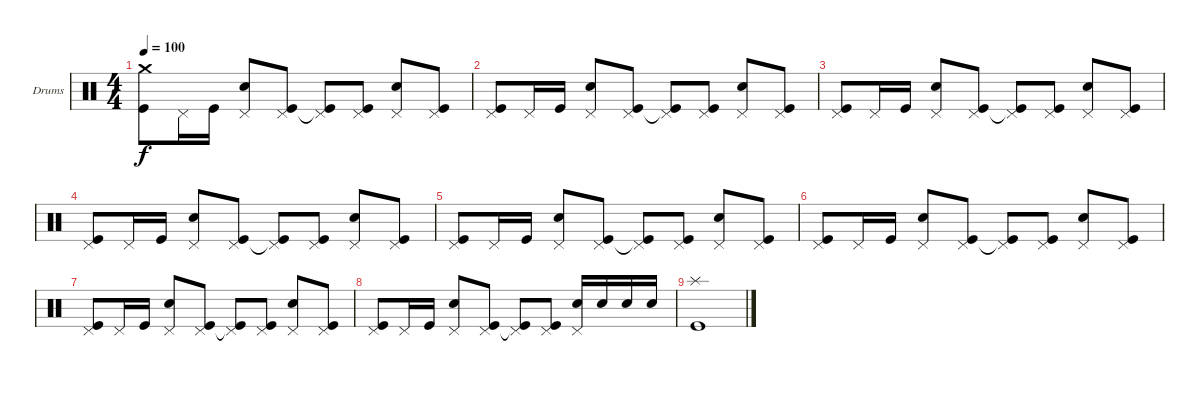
\defaultSystemsLayout 4
\bracketExtendMode groupsimilarinstruments
\firstSystemTrackNameOrientation horizontal
\otherSystemsTrackNameOrientation horizontal
\track ("Drumkit" "Drums") {instrument percussion}
\staff {score}
\articulation defaults
\ts (4 4)
\tempo 100
\clef neutral
\ks c
("Crash medium (hit)" "Kick (hit)").8{dy f} "Pedal Hi-Hat (hit)".16 "Kick (hit)".16 ("Pedal Hi-Hat (hit)" "Snare (hit) 2").8 ("Pedal Hi-Hat (hit)" "Kick (hit)").8 ("Pedal Hi-Hat (hit)" "Kick (hit)"{t}).8 ("Pedal Hi-Hat (hit)" "Kick (hit)").8 ("Pedal Hi-Hat (hit)" "Snare (hit) 2").8 ("Pedal Hi-Hat (hit)" "Kick (hit)").8 |
("Pedal Hi-Hat (hit)" "Kick (hit)").8 "Pedal Hi-Hat (hit)".16 "Kick (hit)".16 ("Pedal Hi-Hat (hit)" "Snare (hit) 2").8 ("Pedal Hi-Hat (hit)" "Kick (hit)").8 ("Pedal Hi-Hat (hit)" "Kick (hit)"{t}).8 ("Pedal Hi-Hat (hit)" "Kick (hit)").8 ("Pedal Hi-Hat (hit)" "Snare (hit) 2").8 ("Pedal Hi-Hat (hit)" "Kick (hit)").8 |
("Pedal Hi-Hat (hit)" "Kick (hit)").8 "Pedal Hi-Hat (hit)".16 "Kick (hit)".16 ("Pedal Hi-Hat (hit)" "Snare (hit) 2").8 ("Pedal Hi-Hat (hit)" "Kick (hit)").8 ("Pedal Hi-Hat (hit)" "Kick (hit)"{t}).8 ("Pedal Hi-Hat (hit)" "Kick (hit)").8 ("Pedal Hi-Hat (hit)" "Snare (hit) 2").8 ("Pedal Hi-Hat (hit)" "Kick (hit)").8 |
("Pedal Hi-Hat (hit)" "Kick (hit)").8 "Pedal Hi-Hat (hit)".16 "Kick (hit)".16 ("Pedal Hi-Hat (hit)" "Snare (hit) 2").8 ("Pedal Hi-Hat (hit)" "Kick (hit)").8 ("Pedal Hi-Hat (hit)" "Kick (hit)"{t}).8 ("Pedal Hi-Hat (hit)" "Kick (hit)").8 ("Pedal Hi-Hat (hit)" "Snare (hit) 2").8 ("Pedal Hi-Hat (hit)" "Kick (hit)").8 |
("Pedal Hi-Hat (hit)" "Kick (hit)").8 "Pedal Hi-Hat (hit)".16 "Kick (hit)".16 ("Pedal Hi-Hat (hit)" "Snare (hit) 2").8 ("Pedal Hi-Hat (hit)" "Kick (hit)").8 ("Pedal Hi-Hat (hit)" "Kick (hit)"{t}).8 ("Pedal Hi-Hat (hit)" "Kick (hit)").8 ("Pedal Hi-Hat (hit)" "Snare (hit) 2").8 ("Pedal Hi-Hat (hit)" "Kick (hit)").8 |
("Pedal Hi-Hat (hit)" "Kick (hit)").8 "Pedal Hi-Hat (hit)".16 "Kick (hit)".16 ("Pedal Hi-Hat (hit)" "Snare (hit) 2").8 ("Pedal Hi-Hat (hit)" "Kick (hit)").8 ("Pedal Hi-Hat (hit)" "Kick (hit)"{t}).8 ("Pedal Hi-Hat (hit)" "Kick (hit)").8 ("Pedal Hi-Hat (hit)" "Snare (hit) 2").8 ("Pedal Hi-Hat (hit)" "Kick (hit)").8 |
("Pedal Hi-Hat (hit)" "Kick (hit)").8 "Pedal Hi-Hat (hit)".16 "Kick (hit)".16 ("Pedal Hi-Hat (hit)" "Snare (hit) 2").8 ("Pedal Hi-Hat (hit)" "Kick (hit)").8 ("Pedal Hi-Hat (hit)" "Kick (hit)"{t}).8 ("Pedal Hi-Hat (hit)" "Kick (hit)").8 ("Pedal Hi-Hat (hit)" "Snare (hit) 2").8 ("Pedal Hi-Hat (hit)" "Kick (hit)").8 |
("Pedal Hi-Hat (hit)" "Kick (hit)").8 "Pedal Hi-Hat (hit)".16 "Kick (hit)".16 ("Pedal Hi-Hat (hit)" "Snare (hit) 2").8 ("Pedal Hi-Hat (hit)" "Kick (hit)").8 ("Pedal Hi-Hat (hit)" "Kick (hit)"{t}).8 ("Pedal Hi-Hat (hit)" "Kick (hit)").8 ("Pedal Hi-Hat (hit)" "Snare (hit) 2").16 "Snare (hit) 2".16 "Snare (hit) 2".16 "Snare (hit) 2".16 |
("Kick (hit)" "Splash (hit)").1
